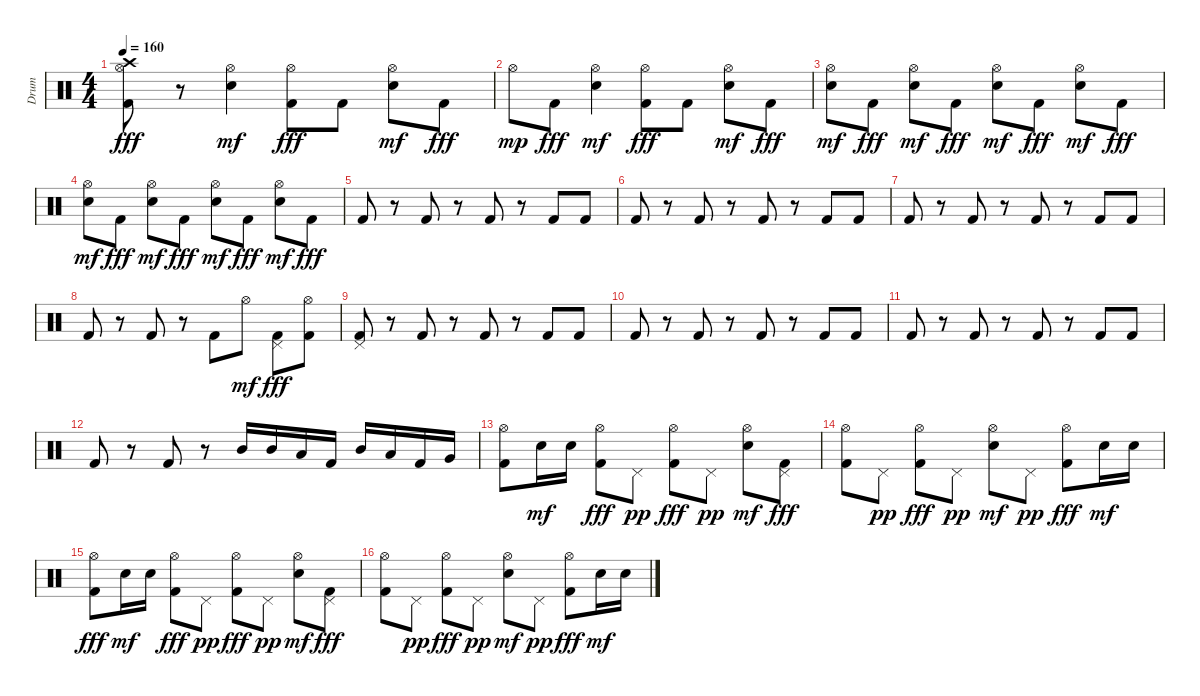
\track ("Drum" "Drum") {instrument percussion}
\staff {score}
\articulation defaults
\ts (4 4)
\tempo 160
\clef neutral
\ks c
("Hi-Hat (open)" "Kick (hit) 2" "Crash high (hit)").8{dy fff} r.8 ("Hi-Hat (open)" "Electric Snare (hit)").4{dy mf} ("Hi-Hat (open)" "Kick (hit) 2").8{dy fff} "Kick (hit) 2".8 ("Hi-Hat (open)" "Electric Snare (hit)").8{dy mf} "Kick (hit) 2".8{dy fff} |
"Hi-Hat (open)".8{dy mp} "Kick (hit) 2".8{dy fff} ("Hi-Hat (open)" "Electric Snare (hit)").4{dy mf} ("Hi-Hat (open)" "Kick (hit) 2").8{dy fff} "Kick (hit) 2".8 ("Hi-Hat (open)" "Electric Snare (hit)").8{dy mf} "Kick (hit) 2".8{dy fff} |
("Hi-Hat (open)" "Electric Snare (hit)").8{dy mf} "Kick (hit) 2".8{dy fff} ("Hi-Hat (open)" "Electric Snare (hit)").8{dy mf} "Kick (hit) 2".8{dy fff} ("Hi-Hat (open)" "Electric Snare (hit)").8{dy mf} "Kick (hit) 2".8{dy fff} ("Hi-Hat (open)" "Electric Snare (hit)").8{dy mf} "Kick (hit) 2".8{dy fff} |
("Hi-Hat (open)" "Electric Snare (hit)").8{dy mf} "Kick (hit) 2".8{dy fff} ("Hi-Hat (open)" "Electric Snare (hit)").8{dy mf} "Kick (hit) 2".8{dy fff} ("Hi-Hat (open)" "Electric Snare (hit)").8{dy mf} "Kick (hit) 2".8{dy fff} ("Hi-Hat (open)" "Electric Snare (hit)").8{dy mf} "Kick (hit) 2".8{dy fff} |
"Kick (hit) 2".8 r.8 "Kick (hit) 2".8 r.8 "Kick (hit) 2".8 r.8 "Kick (hit) 2".8 "Kick (hit) 2".8 |
"Kick (hit) 2".8 r.8 "Kick (hit) 2".8 r.8 "Kick (hit) 2".8 r.8 "Kick (hit) 2".8 "Kick (hit) 2".8 |
"Kick (hit) 2".8 r.8 "Kick (hit) 2".8 r.8 "Kick (hit) 2".8 r.8 "Kick (hit) 2".8 "Kick (hit) 2".8 |
"Kick (hit) 2".8 r.8 "Kick (hit) 2".8 r.8 "Kick (hit) 2".8 "Hi-Hat (open)".8{dy mf} ("Pedal Hi-Hat (hit)" "Kick (hit) 2").8{dy fff} ("Hi-Hat (open)" "Kick (hit) 2").8 |
("Pedal Hi-Hat (hit)" "Kick (hit) 2").8 r.8 "Kick (hit) 2".8 r.8 "Kick (hit) 2".8 r.8 "Kick (hit) 2".8 "Kick (hit) 2".8 |
"Kick (hit) 2".8 r.8 "Kick (hit) 2".8 r.8 "Kick (hit) 2".8 r.8 "Kick (hit) 2".8 "Kick (hit) 2".8 |
"Kick (hit) 2".8 r.8 "Kick (hit) 2".8 r.8 "Kick (hit) 2".8 r.8 "Kick (hit) 2".8 "Kick (hit) 2".8 |
"Kick (hit) 2".8 r.8 "Kick (hit) 2".8 r.8 "Mid Tom (hit)".16 "Mid Tom (hit)".16 "Low Tom (hit)".16 "Kick (hit) 2".16 "Mid Tom (hit)".16 "Low Tom (hit)".16 "Kick (hit) 2".16 "Very Low Tom (hit)".16 |
("Hi-Hat (open)" "Kick (hit) 2").8 "Electric Snare (hit)".16{dy mf} "Electric Snare (hit)".16 ("Hi-Hat (open)" "Kick (hit) 2").8{dy fff} "Pedal Hi-Hat (hit)".8{dy pp} ("Hi-Hat (open)" "Kick (hit) 2").8{dy fff} "Pedal Hi-Hat (hit)".8{dy pp} ("Hi-Hat (open)" "Electric Snare (hit)").8{dy mf} ("Pedal Hi-Hat (hit)" "Kick (hit) 2").8{dy fff} |
("Hi-Hat (open)" "Kick (hit) 2").8 "Pedal Hi-Hat (hit)".8{dy pp} ("Hi-Hat (open)" "Kick (hit) 2").8{dy fff} "Pedal Hi-Hat (hit)".8{dy pp} ("Hi-Hat (open)" "Electric Snare (hit)").8{dy mf} "Pedal Hi-Hat (hit)".8{dy pp} ("Hi-Hat (open)" "Kick (hit) 2").8{dy fff} "Electric Snare (hit)".16{dy mf} "Electric Snare (hit)".16 |
("Hi-Hat (open)" "Kick (hit) 2").8{dy fff} "Electric Snare (hit)".16{dy mf} "Electric Snare (hit)".16 ("Hi-Hat (open)" "Kick (hit) 2").8{dy fff} "Pedal Hi-Hat (hit)".8{dy pp} ("Hi-Hat (open)" "Kick (hit) 2").8{dy fff} "Pedal Hi-Hat (hit)".8{dy pp} ("Hi-Hat (open)" "Electric Snare (hit)").8{dy mf} ("Pedal Hi-Hat (hit)" "Kick (hit) 2").8{dy fff} |
("Hi-Hat (open)" "Kick (hit) 2").8 "Pedal Hi-Hat (hit)".8{dy pp} ("Hi-Hat (open)" "Kick (hit) 2").8{dy fff} "Pedal Hi-Hat (hit)".8{dy pp} ("Hi-Hat (open)" "Electric Snare (hit)").8{dy mf} "Pedal Hi-Hat (hit)".8{dy pp} ("Hi-Hat (open)" "Kick (hit) 2").8{dy fff} "Electric Snare (hit)".16{dy mf} "Electric Snare (hit)".16
